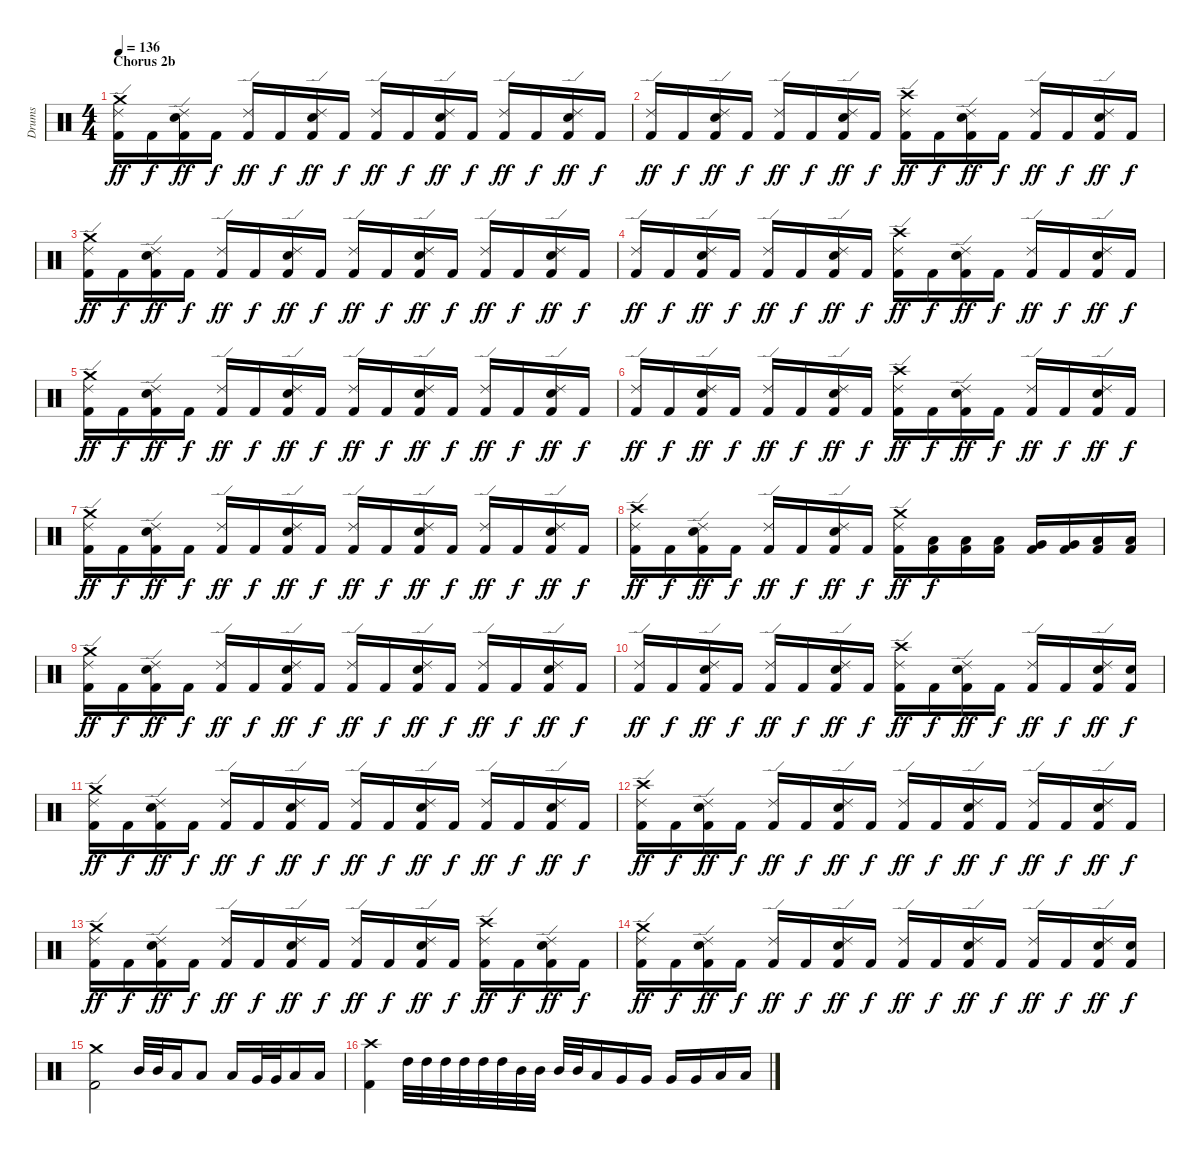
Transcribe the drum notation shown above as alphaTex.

\track ("Drums" "Drums") {instrument percussion}
\staff {score}
\articulation defaults
\ts (4 4)
\section ("" "Chorus 2b")
\tempo 136
\clef neutral
\ks c
("Crash medium (hit)" "Ride (edge) 2" "Kick (hit) 2").16{dy ff} "Kick (hit) 2".16{dy f} ("Ride (edge) 2" "Snare (hit) 2" "Kick (hit) 2").16{dy ff} "Kick (hit) 2".16{dy f} ("Ride (edge) 2" "Kick (hit) 2").16{dy ff} "Kick (hit) 2".16{dy f} ("Ride (edge) 2" "Snare (hit) 2" "Kick (hit) 2").16{dy ff} "Kick (hit) 2".16{dy f} ("Ride (edge) 2" "Kick (hit) 2").16{dy ff} "Kick (hit) 2".16{dy f} ("Ride (edge) 2" "Snare (hit) 2" "Kick (hit) 2").16{dy ff} "Kick (hit) 2".16{dy f} ("Ride (edge) 2" "Kick (hit) 2").16{dy ff} "Kick (hit) 2".16{dy f} ("Ride (edge) 2" "Snare (hit) 2" "Kick (hit) 2").16{dy ff} "Kick (hit) 2".16{dy f} |
("Ride (edge) 2" "Kick (hit) 2").16{dy ff} "Kick (hit) 2".16{dy f} ("Ride (edge) 2" "Snare (hit) 2" "Kick (hit) 2").16{dy ff} "Kick (hit) 2".16{dy f} ("Ride (edge) 2" "Kick (hit) 2").16{dy ff} "Kick (hit) 2".16{dy f} ("Ride (edge) 2" "Snare (hit) 2" "Kick (hit) 2").16{dy ff} "Kick (hit) 2".16{dy f} ("Crash high (hit)" "Ride (edge) 2" "Kick (hit) 2").16{dy ff} "Kick (hit) 2".16{dy f} ("Ride (edge) 2" "Snare (hit) 2" "Kick (hit) 2").16{dy ff} "Kick (hit) 2".16{dy f} ("Ride (edge) 2" "Kick (hit) 2").16{dy ff} "Kick (hit) 2".16{dy f} ("Ride (edge) 2" "Snare (hit) 2" "Kick (hit) 2").16{dy ff} "Kick (hit) 2".16{dy f} |
("Crash medium (hit)" "Ride (edge) 2" "Kick (hit) 2").16{dy ff} "Kick (hit) 2".16{dy f} ("Ride (edge) 2" "Snare (hit) 2" "Kick (hit) 2").16{dy ff} "Kick (hit) 2".16{dy f} ("Ride (edge) 2" "Kick (hit) 2").16{dy ff} "Kick (hit) 2".16{dy f} ("Ride (edge) 2" "Snare (hit) 2" "Kick (hit) 2").16{dy ff} "Kick (hit) 2".16{dy f} ("Ride (edge) 2" "Kick (hit) 2").16{dy ff} "Kick (hit) 2".16{dy f} ("Ride (edge) 2" "Snare (hit) 2" "Kick (hit) 2").16{dy ff} "Kick (hit) 2".16{dy f} ("Ride (edge) 2" "Kick (hit) 2").16{dy ff} "Kick (hit) 2".16{dy f} ("Ride (edge) 2" "Snare (hit) 2" "Kick (hit) 2").16{dy ff} "Kick (hit) 2".16{dy f} |
("Ride (edge) 2" "Kick (hit) 2").16{dy ff} "Kick (hit) 2".16{dy f} ("Ride (edge) 2" "Snare (hit) 2" "Kick (hit) 2").16{dy ff} "Kick (hit) 2".16{dy f} ("Ride (edge) 2" "Kick (hit) 2").16{dy ff} "Kick (hit) 2".16{dy f} ("Ride (edge) 2" "Snare (hit) 2" "Kick (hit) 2").16{dy ff} "Kick (hit) 2".16{dy f} ("Crash high (hit)" "Ride (edge) 2" "Kick (hit) 2").16{dy ff} "Kick (hit) 2".16{dy f} ("Ride (edge) 2" "Snare (hit) 2" "Kick (hit) 2").16{dy ff} "Kick (hit) 2".16{dy f} ("Ride (edge) 2" "Kick (hit) 2").16{dy ff} "Kick (hit) 2".16{dy f} ("Ride (edge) 2" "Snare (hit) 2" "Kick (hit) 2").16{dy ff} "Kick (hit) 2".16{dy f} |
("Crash medium (hit)" "Ride (edge) 2" "Kick (hit) 2").16{dy ff} "Kick (hit) 2".16{dy f} ("Ride (edge) 2" "Snare (hit) 2" "Kick (hit) 2").16{dy ff} "Kick (hit) 2".16{dy f} ("Ride (edge) 2" "Kick (hit) 2").16{dy ff} "Kick (hit) 2".16{dy f} ("Ride (edge) 2" "Snare (hit) 2" "Kick (hit) 2").16{dy ff} "Kick (hit) 2".16{dy f} ("Ride (edge) 2" "Kick (hit) 2").16{dy ff} "Kick (hit) 2".16{dy f} ("Ride (edge) 2" "Snare (hit) 2" "Kick (hit) 2").16{dy ff} "Kick (hit) 2".16{dy f} ("Ride (edge) 2" "Kick (hit) 2").16{dy ff} "Kick (hit) 2".16{dy f} ("Ride (edge) 2" "Snare (hit) 2" "Kick (hit) 2").16{dy ff} "Kick (hit) 2".16{dy f} |
("Ride (edge) 2" "Kick (hit) 2").16{dy ff} "Kick (hit) 2".16{dy f} ("Ride (edge) 2" "Snare (hit) 2" "Kick (hit) 2").16{dy ff} "Kick (hit) 2".16{dy f} ("Ride (edge) 2" "Kick (hit) 2").16{dy ff} "Kick (hit) 2".16{dy f} ("Ride (edge) 2" "Snare (hit) 2" "Kick (hit) 2").16{dy ff} "Kick (hit) 2".16{dy f} ("Crash high (hit)" "Ride (edge) 2" "Kick (hit) 2").16{dy ff} "Kick (hit) 2".16{dy f} ("Ride (edge) 2" "Snare (hit) 2" "Kick (hit) 2").16{dy ff} "Kick (hit) 2".16{dy f} ("Ride (edge) 2" "Kick (hit) 2").16{dy ff} "Kick (hit) 2".16{dy f} ("Ride (edge) 2" "Snare (hit) 2" "Kick (hit) 2").16{dy ff} "Kick (hit) 2".16{dy f} |
("Crash medium (hit)" "Ride (edge) 2" "Kick (hit) 2").16{dy ff} "Kick (hit) 2".16{dy f} ("Ride (edge) 2" "Snare (hit) 2" "Kick (hit) 2").16{dy ff} "Kick (hit) 2".16{dy f} ("Ride (edge) 2" "Kick (hit) 2").16{dy ff} "Kick (hit) 2".16{dy f} ("Ride (edge) 2" "Snare (hit) 2" "Kick (hit) 2").16{dy ff} "Kick (hit) 2".16{dy f} ("Ride (edge) 2" "Kick (hit) 2").16{dy ff} "Kick (hit) 2".16{dy f} ("Ride (edge) 2" "Snare (hit) 2" "Kick (hit) 2").16{dy ff} "Kick (hit) 2".16{dy f} ("Ride (edge) 2" "Kick (hit) 2").16{dy ff} "Kick (hit) 2".16{dy f} ("Ride (edge) 2" "Snare (hit) 2" "Kick (hit) 2").16{dy ff} "Kick (hit) 2".16{dy f} |
("Crash high (hit)" "Ride (edge) 2" "Kick (hit) 2").16{dy ff} "Kick (hit) 2".16{dy f} ("Ride (edge) 2" "Snare (hit) 2" "Kick (hit) 2").16{dy ff} "Kick (hit) 2".16{dy f} ("Ride (edge) 2" "Kick (hit) 2").16{dy ff} "Kick (hit) 2".16{dy f} ("Ride (edge) 2" "Snare (hit) 2" "Kick (hit) 2").16{dy ff} "Kick (hit) 2".16{dy f} ("Crash medium (hit)" "Ride (edge) 2" "Kick (hit) 2").16{dy ff} ("Low Tom (hit)" "Kick (hit) 2").16{dy f} ("Low Tom (hit)" "Kick (hit) 2").16 ("Low Tom (hit)" "Kick (hit) 2").16 ("Very Low Tom (hit)" "Kick (hit) 2").16 ("Very Low Tom (hit)" "Kick (hit) 2").16 ("Low Floor Tom (hit)" "Kick (hit) 2").16 ("Low Floor Tom (hit)" "Kick (hit) 2").16 |
("Crash medium (hit)" "Ride (edge) 2" "Kick (hit) 2").16{dy ff} "Kick (hit) 2".16{dy f} ("Ride (edge) 2" "Snare (hit) 2" "Kick (hit) 2").16{dy ff} "Kick (hit) 2".16{dy f} ("Ride (edge) 2" "Kick (hit) 2").16{dy ff} "Kick (hit) 2".16{dy f} ("Ride (edge) 2" "Snare (hit) 2" "Kick (hit) 2").16{dy ff} "Kick (hit) 2".16{dy f} ("Ride (edge) 2" "Kick (hit) 2").16{dy ff} "Kick (hit) 2".16{dy f} ("Ride (edge) 2" "Snare (hit) 2" "Kick (hit) 2").16{dy ff} "Kick (hit) 2".16{dy f} ("Ride (edge) 2" "Kick (hit) 2").16{dy ff} "Kick (hit) 2".16{dy f} ("Ride (edge) 2" "Snare (hit) 2" "Kick (hit) 2").16{dy ff} "Kick (hit) 2".16{dy f} |
("Ride (edge) 2" "Kick (hit) 2").16{dy ff} "Kick (hit) 2".16{dy f} ("Ride (edge) 2" "Snare (hit) 2" "Kick (hit) 2").16{dy ff} "Kick (hit) 2".16{dy f} ("Ride (edge) 2" "Kick (hit) 2").16{dy ff} "Kick (hit) 2".16{dy f} ("Ride (edge) 2" "Snare (hit) 2" "Kick (hit) 2").16{dy ff} "Kick (hit) 2".16{dy f} ("Crash high (hit)" "Ride (edge) 2" "Kick (hit) 2").16{dy ff} "Kick (hit) 2".16{dy f} ("Ride (edge) 2" "Snare (hit) 2" "Kick (hit) 2").16{dy ff} "Kick (hit) 2".16{dy f} ("Ride (edge) 2" "Kick (hit) 2").16{dy ff} "Kick (hit) 2".16{dy f} ("Ride (edge) 2" "Snare (hit) 2" "Kick (hit) 2").16{dy ff} ("Snare (hit) 2" "Kick (hit) 2").16{dy f} |
("Crash medium (hit)" "Ride (edge) 2" "Kick (hit) 2").16{dy ff} "Kick (hit) 2".16{dy f} ("Ride (edge) 2" "Snare (hit) 2" "Kick (hit) 2").16{dy ff} "Kick (hit) 2".16{dy f} ("Ride (edge) 2" "Kick (hit) 2").16{dy ff} "Kick (hit) 2".16{dy f} ("Ride (edge) 2" "Snare (hit) 2" "Kick (hit) 2").16{dy ff} "Kick (hit) 2".16{dy f} ("Ride (edge) 2" "Kick (hit) 2").16{dy ff} "Kick (hit) 2".16{dy f} ("Ride (edge) 2" "Snare (hit) 2" "Kick (hit) 2").16{dy ff} "Kick (hit) 2".16{dy f} ("Ride (edge) 2" "Kick (hit) 2").16{dy ff} "Kick (hit) 2".16{dy f} ("Ride (edge) 2" "Snare (hit) 2" "Kick (hit) 2").16{dy ff} "Kick (hit) 2".16{dy f} |
("Crash high (hit)" "Ride (edge) 2" "Kick (hit) 2").16{dy ff} "Kick (hit) 2".16{dy f} ("Ride (edge) 2" "Snare (hit) 2" "Kick (hit) 2").16{dy ff} "Kick (hit) 2".16{dy f} ("Ride (edge) 2" "Kick (hit) 2").16{dy ff} "Kick (hit) 2".16{dy f} ("Ride (edge) 2" "Snare (hit) 2" "Kick (hit) 2").16{dy ff} "Kick (hit) 2".16{dy f} ("Ride (edge) 2" "Kick (hit) 2").16{dy ff} "Kick (hit) 2".16{dy f} ("Ride (edge) 2" "Snare (hit) 2" "Kick (hit) 2").16{dy ff} "Kick (hit) 2".16{dy f} ("Ride (edge) 2" "Kick (hit) 2").16{dy ff} "Kick (hit) 2".16{dy f} ("Ride (edge) 2" "Snare (hit) 2" "Kick (hit) 2").16{dy ff} "Kick (hit) 2".16{dy f} |
("Crash medium (hit)" "Ride (edge) 2" "Kick (hit) 2").16{dy ff} "Kick (hit) 2".16{dy f} ("Ride (edge) 2" "Snare (hit) 2" "Kick (hit) 2").16{dy ff} "Kick (hit) 2".16{dy f} ("Ride (edge) 2" "Kick (hit) 2").16{dy ff} "Kick (hit) 2".16{dy f} ("Ride (edge) 2" "Snare (hit) 2" "Kick (hit) 2").16{dy ff} "Kick (hit) 2".16{dy f} ("Ride (edge) 2" "Kick (hit) 2").16{dy ff} "Kick (hit) 2".16{dy f} ("Ride (edge) 2" "Snare (hit) 2" "Kick (hit) 2").16{dy ff} "Kick (hit) 2".16{dy f} ("Crash high (hit)" "Ride (edge) 2" "Kick (hit) 2").16{dy ff} "Kick (hit) 2".16{dy f} ("Ride (edge) 2" "Snare (hit) 2" "Kick (hit) 2").16{dy ff} "Kick (hit) 2".16{dy f} |
("Crash medium (hit)" "Ride (edge) 2" "Kick (hit) 2").16{dy ff} "Kick (hit) 2".16{dy f} ("Ride (edge) 2" "Snare (hit) 2" "Kick (hit) 2").16{dy ff} "Kick (hit) 2".16{dy f} ("Ride (edge) 2" "Kick (hit) 2").16{dy ff} "Kick (hit) 2".16{dy f} ("Ride (edge) 2" "Snare (hit) 2" "Kick (hit) 2").16{dy ff} "Kick (hit) 2".16{dy f} ("Ride (edge) 2" "Kick (hit) 2").16{dy ff} "Kick (hit) 2".16{dy f} ("Ride (edge) 2" "Snare (hit) 2" "Kick (hit) 2").16{dy ff} "Kick (hit) 2".16{dy f} ("Ride (edge) 2" "Kick (hit) 2").16{dy ff} "Kick (hit) 2".16{dy f} ("Ride (edge) 2" "Snare (hit) 2" "Kick (hit) 2").16{dy ff} ("Snare (hit) 2" "Kick (hit) 2").16{dy f} |
("Crash medium (hit)" "Kick (hit) 2").2 "Mid Tom (hit)".32 "Mid Tom (hit)".32 "Low Tom (hit)".16 "Low Tom (hit)".8 "Low Tom (hit)".16 "Very Low Tom (hit)".32 "Very Low Tom (hit)".32 "Low Floor Tom (hit)".16 "Low Floor Tom (hit)".16 |
("Crash high (hit)" "Kick (hit) 2").4 "High Tom (hit)".32 "High Tom (hit)".32 "High Tom (hit)".32 "High Tom (hit)".32 "High Tom (hit)".32 "High Tom (hit)".32 "Mid Tom (hit)".32 "Mid Tom (hit)".32 "Mid Tom (hit)".32 "Mid Tom (hit)".32 "Low Tom (hit)".16 "Very Low Tom (hit)".16 "Very Low Tom (hit)".16 "Very Low Tom (hit)".16 "Very Low Tom (hit)".16 "Low Floor Tom (hit)".16 "Low Floor Tom (hit)".16
